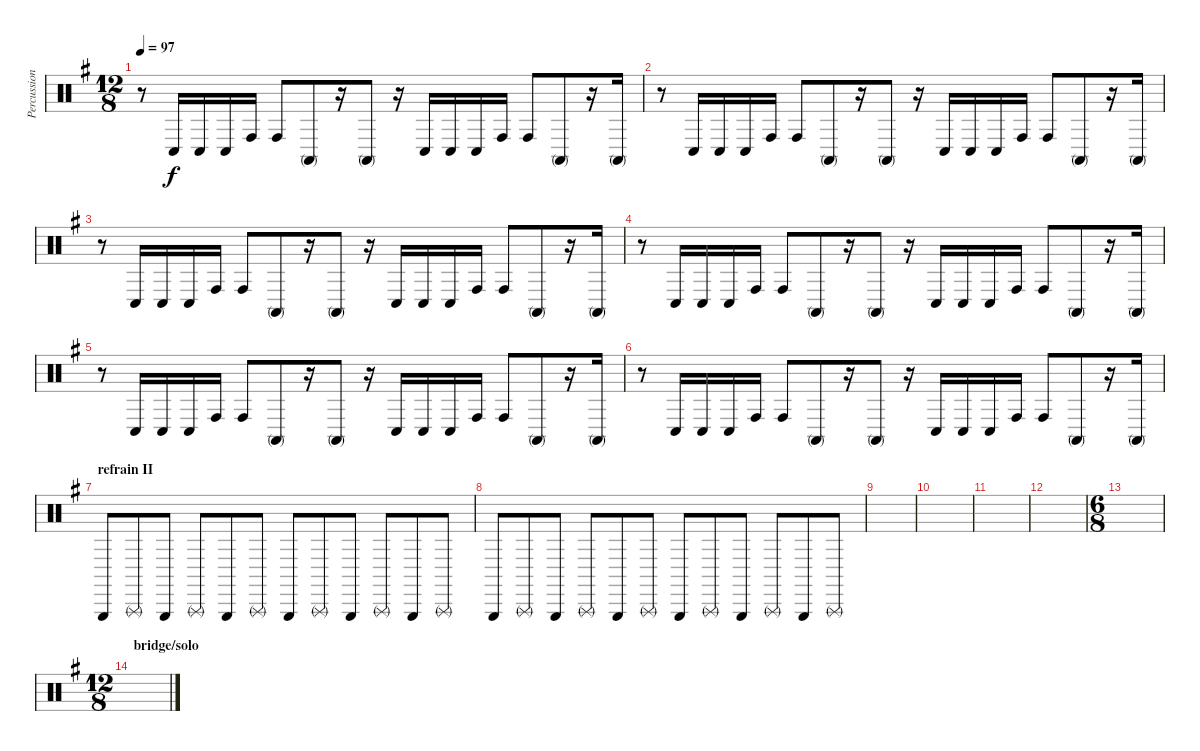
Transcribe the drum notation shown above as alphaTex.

\track ("Percussions" "Percussion") {instrument percussion}
\staff {score}
\articulation defaults
\ts (12 8)
\tempo 97
\clef neutral
\ks g
r.8{dy f} "Conga low (hit)".16 "Conga low (hit)".16 "Conga low (hit)".16 "Conga high (hit)".16 "Conga high (hit)".8 "Conga high (mute)".8 r.16 "Conga high (mute)".8 r.16 "Conga low (hit)".16 "Conga low (hit)".16 "Conga low (hit)".16 "Conga high (hit)".16 "Conga high (hit)".8 "Conga high (mute)".8 r.16 "Conga high (mute)".16 |
r.8 "Conga low (hit)".16 "Conga low (hit)".16 "Conga low (hit)".16 "Conga high (hit)".16 "Conga high (hit)".8 "Conga high (mute)".8 r.16 "Conga high (mute)".8 r.16 "Conga low (hit)".16 "Conga low (hit)".16 "Conga low (hit)".16 "Conga high (hit)".16 "Conga high (hit)".8 "Conga high (mute)".8 r.16 "Conga high (mute)".16 |
r.8 "Conga low (hit)".16 "Conga low (hit)".16 "Conga low (hit)".16 "Conga high (hit)".16 "Conga high (hit)".8 "Conga high (mute)".8 r.16 "Conga high (mute)".8 r.16 "Conga low (hit)".16 "Conga low (hit)".16 "Conga low (hit)".16 "Conga high (hit)".16 "Conga high (hit)".8 "Conga high (mute)".8 r.16 "Conga high (mute)".16 |
r.8 "Conga low (hit)".16 "Conga low (hit)".16 "Conga low (hit)".16 "Conga high (hit)".16 "Conga high (hit)".8 "Conga high (mute)".8 r.16 "Conga high (mute)".8 r.16 "Conga low (hit)".16 "Conga low (hit)".16 "Conga low (hit)".16 "Conga high (hit)".16 "Conga high (hit)".8 "Conga high (mute)".8 r.16 "Conga high (mute)".16 |
r.8 "Conga low (hit)".16 "Conga low (hit)".16 "Conga low (hit)".16 "Conga high (hit)".16 "Conga high (hit)".8 "Conga high (mute)".8 r.16 "Conga high (mute)".8 r.16 "Conga low (hit)".16 "Conga low (hit)".16 "Conga low (hit)".16 "Conga high (hit)".16 "Conga high (hit)".8 "Conga high (mute)".8 r.16 "Conga high (mute)".16 |
r.8 "Conga low (hit)".16 "Conga low (hit)".16 "Conga low (hit)".16 "Conga high (hit)".16 "Conga high (hit)".8 "Conga high (mute)".8 r.16 "Conga high (mute)".8 r.16 "Conga low (hit)".16 "Conga low (hit)".16 "Conga low (hit)".16 "Conga high (hit)".16 "Conga high (hit)".8 "Conga high (mute)".8 r.16 "Conga high (mute)".16 |
\section ("" "refrain II")
"Triangle (hit)".8 "Triangle (rnute)".8 "Triangle (hit)".8 "Triangle (rnute)".8 "Triangle (hit)".8 "Triangle (rnute)".8 "Triangle (hit)".8 "Triangle (rnute)".8 "Triangle (hit)".8 "Triangle (rnute)".8 "Triangle (hit)".8 "Triangle (rnute)".8 |
"Triangle (hit)".8 "Triangle (rnute)".8 "Triangle (hit)".8 "Triangle (rnute)".8 "Triangle (hit)".8 "Triangle (rnute)".8 "Triangle (hit)".8 "Triangle (rnute)".8 "Triangle (hit)".8 "Triangle (rnute)".8 "Triangle (hit)".8 "Triangle (rnute)".8 |
|
|
|
|
\ts (6 8)
|
\ts (12 8)
\section ("" "bridge/solo")
